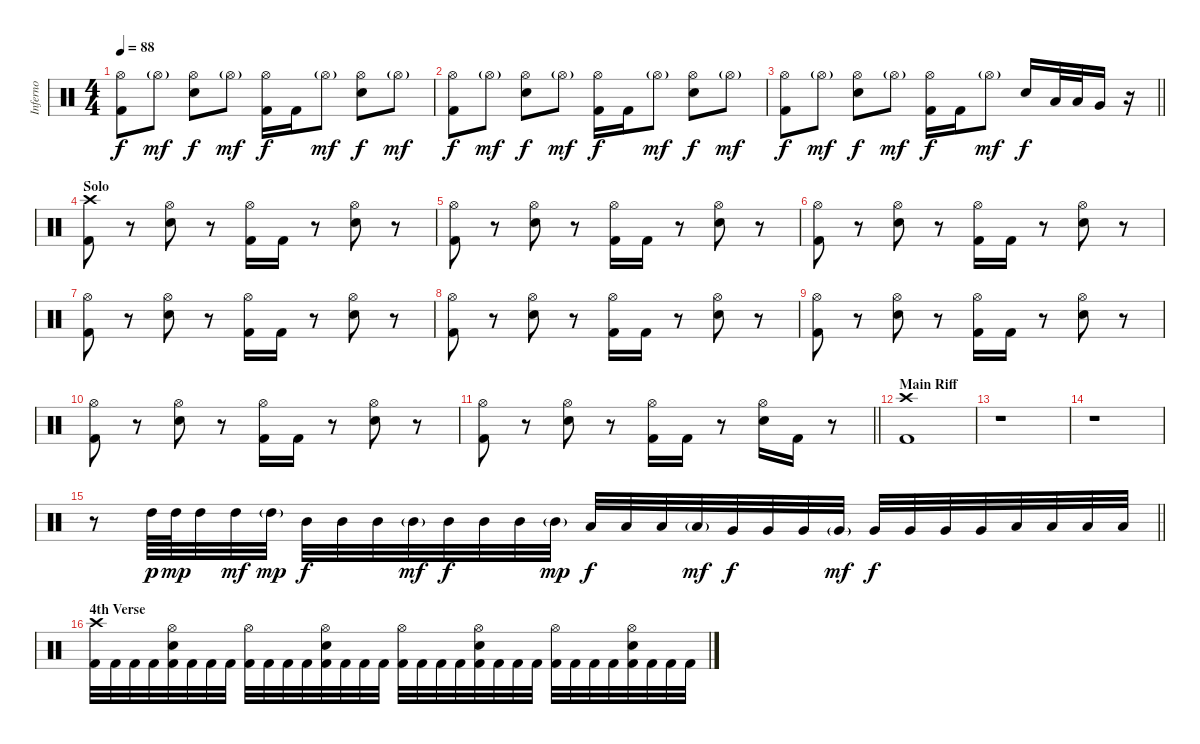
\track ("Inferno" "Inferno") {instrument percussion}
\staff {score}
\articulation defaults
\ts (4 4)
\tempo 88
\clef neutral
\ks c
("Hi-Hat (open)" "Kick (hit) 2").8{dy f} "Hi-Hat (open)"{g}.8{dy mf} ("Hi-Hat (open)" "Snare (hit) 2").8{dy f} "Hi-Hat (open)"{g}.8{dy mf} ("Hi-Hat (open)" "Kick (hit) 2").16{dy f} "Kick (hit) 2".16 "Hi-Hat (open)"{g}.8{dy mf} ("Hi-Hat (open)" "Snare (hit) 2").8{dy f} "Hi-Hat (open)"{g}.8{dy mf} |
("Hi-Hat (open)" "Kick (hit) 2").8{dy f} "Hi-Hat (open)"{g}.8{dy mf} ("Hi-Hat (open)" "Snare (hit) 2").8{dy f} "Hi-Hat (open)"{g}.8{dy mf} ("Hi-Hat (open)" "Kick (hit) 2").16{dy f} "Kick (hit) 2".16 "Hi-Hat (open)"{g}.8{dy mf} ("Hi-Hat (open)" "Snare (hit) 2").8{dy f} "Hi-Hat (open)"{g}.8{dy mf} |
\barLineRight lightlight
("Hi-Hat (open)" "Kick (hit) 2").8{dy f} "Hi-Hat (open)"{g}.8{dy mf} ("Hi-Hat (open)" "Snare (hit) 2").8{dy f} "Hi-Hat (open)"{g}.8{dy mf} ("Hi-Hat (open)" "Kick (hit) 2").16{dy f} "Kick (hit) 2".16 "Hi-Hat (open)"{g}.8{dy mf} "Snare (hit) 2".16{dy f} "Low Tom (hit)".32 "Low Tom (hit)".32 "Very Low Tom (hit)".16 r.16 |
\section ("" "Solo")
("Crash high (hit)" "Kick (hit) 2").8 r.8 ("Hi-Hat (open)" "Snare (hit) 2").8 r.8 ("Hi-Hat (open)" "Kick (hit) 2").16 "Kick (hit) 2".16 r.8 ("Hi-Hat (open)" "Snare (hit) 2").8 r.8 |
("Hi-Hat (open)" "Kick (hit) 2").8 r.8 ("Hi-Hat (open)" "Snare (hit) 2").8 r.8 ("Hi-Hat (open)" "Kick (hit) 2").16 "Kick (hit) 2".16 r.8 ("Hi-Hat (open)" "Snare (hit) 2").8 r.8 |
("Hi-Hat (open)" "Kick (hit) 2").8 r.8 ("Hi-Hat (open)" "Snare (hit) 2").8 r.8 ("Hi-Hat (open)" "Kick (hit) 2").16 "Kick (hit) 2".16 r.8 ("Hi-Hat (open)" "Snare (hit) 2").8 r.8 |
("Hi-Hat (open)" "Kick (hit) 2").8 r.8 ("Hi-Hat (open)" "Snare (hit) 2").8 r.8 ("Hi-Hat (open)" "Kick (hit) 2").16 "Kick (hit) 2".16 r.8 ("Hi-Hat (open)" "Snare (hit) 2").8 r.8 |
("Hi-Hat (open)" "Kick (hit) 2").8 r.8 ("Hi-Hat (open)" "Snare (hit) 2").8 r.8 ("Hi-Hat (open)" "Kick (hit) 2").16 "Kick (hit) 2".16 r.8 ("Hi-Hat (open)" "Snare (hit) 2").8 r.8 |
("Hi-Hat (open)" "Kick (hit) 2").8 r.8 ("Hi-Hat (open)" "Snare (hit) 2").8 r.8 ("Hi-Hat (open)" "Kick (hit) 2").16 "Kick (hit) 2".16 r.8 ("Hi-Hat (open)" "Snare (hit) 2").8 r.8 |
("Hi-Hat (open)" "Kick (hit) 2").8 r.8 ("Hi-Hat (open)" "Snare (hit) 2").8 r.8 ("Hi-Hat (open)" "Kick (hit) 2").16 "Kick (hit) 2".16 r.8 ("Hi-Hat (open)" "Snare (hit) 2").8 r.8 |
\barLineRight lightlight
("Hi-Hat (open)" "Kick (hit) 2").8 r.8 ("Hi-Hat (open)" "Snare (hit) 2").8 r.8 ("Hi-Hat (open)" "Kick (hit) 2").16 "Kick (hit) 2".16 r.8 ("Hi-Hat (open)" "Snare (hit) 2").16 "Kick (hit) 2".16 r.8 |
\section ("" "Main Riff")
("Crash high (hit)" "Kick (hit) 2").1 |
r.1 |
r.1 |
\barLineRight lightlight
r.8 "High Tom (hit)".64{dy p} "High Tom (hit)".64{dy mp} "High Tom (hit)".32 "High Tom (hit)".32{dy mf} "High Tom (hit)"{g}.32{dy mp} "Mid Tom (hit)".32{dy f} "Mid Tom (hit)".32 "Mid Tom (hit)".32 "Mid Tom (hit)"{g}.32{dy mf} "Mid Tom (hit)".32{dy f} "Mid Tom (hit)".32 "Mid Tom (hit)".32 "Mid Tom (hit)"{g}.32{dy mp} "Low Tom (hit)".32{dy f} "Low Tom (hit)".32 "Low Tom (hit)".32 "Low Tom (hit)"{g}.32{dy mf} "Very Low Tom (hit)".32{dy f} "Very Low Tom (hit)".32 "Very Low Tom (hit)".32 "Very Low Tom (hit)"{g}.32{dy mf} "Very Low Tom (hit)".32{dy f} "Very Low Tom (hit)".32 "Very Low Tom (hit)".32 "Very Low Tom (hit)".32 "Low Floor Tom (hit)".32 "Low Floor Tom (hit)".32 "Low Floor Tom (hit)".32 "Low Floor Tom (hit)".32 |
\section ("" "4th Verse")
("Crash high (hit)" "Kick (hit) 2").32 "Kick (hit) 2".32 "Kick (hit) 2".32 "Kick (hit) 2".32 ("Hi-Hat (open)" "Snare (hit) 2" "Kick (hit) 2").32 "Kick (hit) 2".32 "Kick (hit) 2".32 "Kick (hit) 2".32 ("Hi-Hat (open)" "Kick (hit) 2").32 "Kick (hit) 2".32 "Kick (hit) 2".32 "Kick (hit) 2".32 ("Hi-Hat (open)" "Snare (hit) 2" "Kick (hit) 2").32 "Kick (hit) 2".32 "Kick (hit) 2".32 "Kick (hit) 2".32 ("Hi-Hat (open)" "Kick (hit) 2").32 "Kick (hit) 2".32 "Kick (hit) 2".32 "Kick (hit) 2".32 ("Hi-Hat (open)" "Snare (hit) 2" "Kick (hit) 2").32 "Kick (hit) 2".32 "Kick (hit) 2".32 "Kick (hit) 2".32 ("Hi-Hat (open)" "Kick (hit) 2").32 "Kick (hit) 2".32 "Kick (hit) 2".32 "Kick (hit) 2".32 ("Hi-Hat (open)" "Snare (hit) 2" "Kick (hit) 2").32 "Kick (hit) 2".32 "Kick (hit) 2".32 "Kick (hit) 2".32
